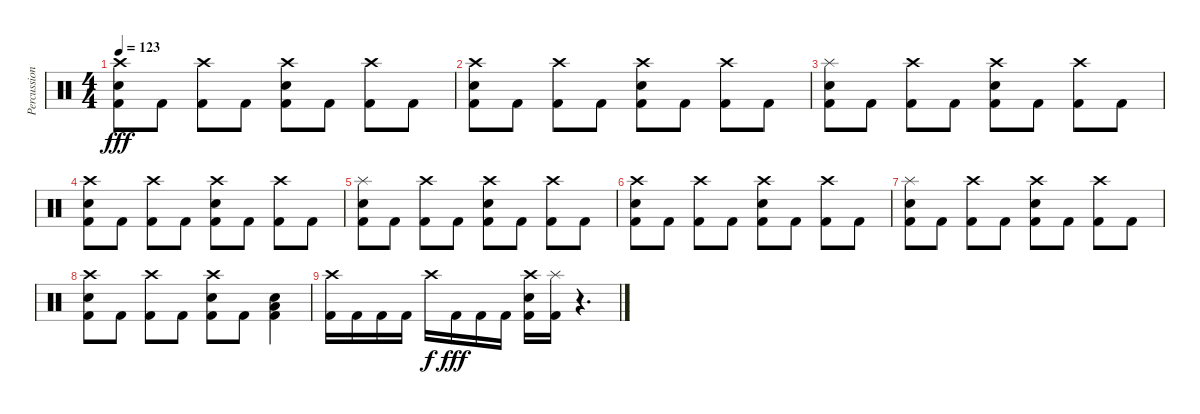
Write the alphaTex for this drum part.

\track ("Percussion" "Percussion") {instrument percussion}
\staff {score}
\articulation defaults
\ts (4 4)
\tempo 123
\clef neutral
\ks c
("Crash high (hit)" "Snare (hit) 2" "Kick (hit) 2").8{dy fff} "Kick (hit) 2".8 ("Crash high (hit)" "Kick (hit) 2").8 "Kick (hit) 2".8 ("Crash high (hit)" "Snare (hit) 2" "Kick (hit) 2").8 "Kick (hit) 2".8 ("Crash high (hit)" "Kick (hit) 2").8 "Kick (hit) 2".8 |
("Crash high (hit)" "Snare (hit) 2" "Kick (hit) 2").8 "Kick (hit) 2".8 ("Crash high (hit)" "Kick (hit) 2").8 "Kick (hit) 2".8 ("Crash high (hit)" "Snare (hit) 2" "Kick (hit) 2").8 "Kick (hit) 2".8 ("Crash high (hit)" "Kick (hit) 2").8 "Kick (hit) 2".8 |
("Splash (hit)" "Snare (hit) 2" "Kick (hit) 2").8 "Kick (hit) 2".8 ("Crash high (hit)" "Kick (hit) 2").8 "Kick (hit) 2".8 ("Crash high (hit)" "Snare (hit) 2" "Kick (hit) 2").8 "Kick (hit) 2".8 ("Crash high (hit)" "Kick (hit) 2").8 "Kick (hit) 2".8 |
("Crash high (hit)" "Snare (hit) 2" "Kick (hit) 2").8 "Kick (hit) 2".8 ("Crash high (hit)" "Kick (hit) 2").8 "Kick (hit) 2".8 ("Crash high (hit)" "Snare (hit) 2" "Kick (hit) 2").8 "Kick (hit) 2".8 ("Crash high (hit)" "Kick (hit) 2").8 "Kick (hit) 2".8 |
("Splash (hit)" "Snare (hit) 2" "Kick (hit) 2").8 "Kick (hit) 2".8 ("Crash high (hit)" "Kick (hit) 2").8 "Kick (hit) 2".8 ("Crash high (hit)" "Snare (hit) 2" "Kick (hit) 2").8 "Kick (hit) 2".8 ("Crash high (hit)" "Kick (hit) 2").8 "Kick (hit) 2".8 |
("Crash high (hit)" "Snare (hit) 2" "Kick (hit) 2").8 "Kick (hit) 2".8 ("Crash high (hit)" "Kick (hit) 2").8 "Kick (hit) 2".8 ("Crash high (hit)" "Snare (hit) 2" "Kick (hit) 2").8 "Kick (hit) 2".8 ("Crash high (hit)" "Kick (hit) 2").8 "Kick (hit) 2".8 |
("Splash (hit)" "Snare (hit) 2" "Kick (hit) 2").8 "Kick (hit) 2".8 ("Crash high (hit)" "Kick (hit) 2").8 "Kick (hit) 2".8 ("Crash high (hit)" "Snare (hit) 2" "Kick (hit) 2").8 "Kick (hit) 2".8 ("Crash high (hit)" "Kick (hit) 2").8 "Kick (hit) 2".8 |
("Crash high (hit)" "Snare (hit) 2" "Kick (hit) 2").8 "Kick (hit) 2".8 ("Crash high (hit)" "Kick (hit) 2").8 "Kick (hit) 2".8 ("Crash high (hit)" "Snare (hit) 2" "Kick (hit) 2").8 "Kick (hit) 2".8 ("Low Floor Tom (hit)" "Snare (hit) 2" "Kick (hit) 2").4 |
("Crash high (hit)" "Kick (hit) 2").16 "Kick (hit) 2".16 "Kick (hit) 2".16 "Kick (hit) 2".16 "Crash high (hit)".16{dy f} "Kick (hit) 2".16{dy fff} "Kick (hit) 2".16 "Kick (hit) 2".16 ("Crash high (hit)" "Snare (hit) 2" "Kick (hit) 2").16 ("Splash (hit)" "Kick (hit) 2").16 r.4{d}
